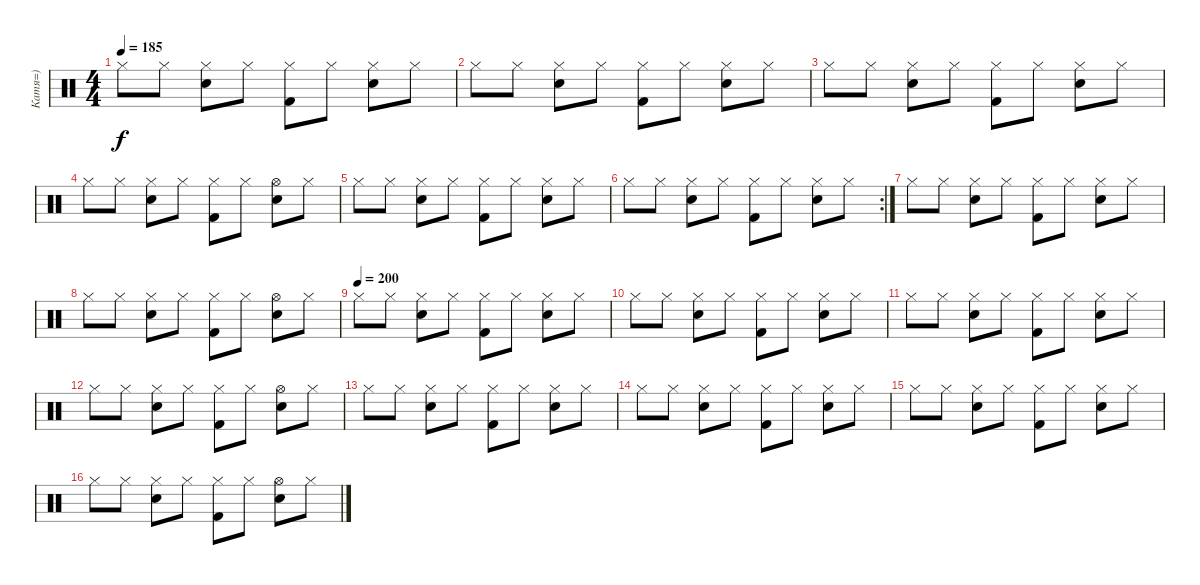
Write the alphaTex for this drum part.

\track ("Катя=)" "Катя=)") {instrument percussion}
\staff {score}
\articulation defaults
\ts (4 4)
\tempo 185
\clef neutral
\ks c "Hi-Hat (closed)".8{dy f} "Hi-Hat (closed)".8
("Hi-Hat (closed)" "Electric Snare (hit)").8 "Hi-Hat (closed)".8 ("Hi-Hat (closed)" "Kick (hit) 2").8 "Hi-Hat (closed)".8 ("Hi-Hat (closed)" "Electric Snare (hit)").8 "Hi-Hat (closed)".8 |
"Hi-Hat (closed)".8 "Hi-Hat (closed)".8 ("Hi-Hat (closed)" "Electric Snare (hit)").8 "Hi-Hat (closed)".8 ("Hi-Hat (closed)" "Kick (hit) 2").8 "Hi-Hat (closed)".8 ("Hi-Hat (closed)" "Electric Snare (hit)").8 "Hi-Hat (closed)".8 |
"Hi-Hat (closed)".8 "Hi-Hat (closed)".8 ("Hi-Hat (closed)" "Electric Snare (hit)").8 "Hi-Hat (closed)".8 ("Hi-Hat (closed)" "Kick (hit) 2").8 "Hi-Hat (closed)".8 ("Hi-Hat (closed)" "Electric Snare (hit)").8 "Hi-Hat (closed)".8 |
"Hi-Hat (closed)".8 "Hi-Hat (closed)".8 ("Hi-Hat (closed)" "Electric Snare (hit)").8 "Hi-Hat (closed)".8 ("Hi-Hat (closed)" "Kick (hit) 2").8 "Hi-Hat (closed)".8 ("Hi-Hat (open)" "Electric Snare (hit)").8 "Hi-Hat (closed)".8 |
"Hi-Hat (closed)".8 "Hi-Hat (closed)".8 ("Hi-Hat (closed)" "Electric Snare (hit)").8 "Hi-Hat (closed)".8 ("Hi-Hat (closed)" "Kick (hit) 2").8 "Hi-Hat (closed)".8 ("Hi-Hat (closed)" "Electric Snare (hit)").8 "Hi-Hat (closed)".8 |
\rc 2 "Hi-Hat (closed)".8 "Hi-Hat (closed)".8
("Hi-Hat (closed)" "Electric Snare (hit)").8 "Hi-Hat (closed)".8 ("Hi-Hat (closed)" "Kick (hit) 2").8 "Hi-Hat (closed)".8 ("Hi-Hat (closed)" "Electric Snare (hit)").8 "Hi-Hat (closed)".8 |
"Hi-Hat (closed)".8 "Hi-Hat (closed)".8 ("Hi-Hat (closed)" "Electric Snare (hit)").8 "Hi-Hat (closed)".8 ("Hi-Hat (closed)" "Kick (hit) 2").8 "Hi-Hat (closed)".8 ("Hi-Hat (closed)" "Electric Snare (hit)").8 "Hi-Hat (closed)".8 |
"Hi-Hat (closed)".8 "Hi-Hat (closed)".8 ("Hi-Hat (closed)" "Electric Snare (hit)").8 "Hi-Hat (closed)".8 ("Hi-Hat (closed)" "Kick (hit) 2").8 "Hi-Hat (closed)".8 ("Hi-Hat (open)" "Electric Snare (hit)").8 "Hi-Hat (closed)".8 |
\tempo (200)
"Hi-Hat (closed)".8 "Hi-Hat (closed)".8 ("Hi-Hat (closed)" "Electric Snare (hit)").8 "Hi-Hat (closed)".8 ("Hi-Hat (closed)" "Kick (hit) 2").8 "Hi-Hat (closed)".8 ("Hi-Hat (closed)" "Electric Snare (hit)").8 "Hi-Hat (closed)".8 |
"Hi-Hat (closed)".8 "Hi-Hat (closed)".8 ("Hi-Hat (closed)" "Electric Snare (hit)").8 "Hi-Hat (closed)".8 ("Hi-Hat (closed)" "Kick (hit) 2").8 "Hi-Hat (closed)".8 ("Hi-Hat (closed)" "Electric Snare (hit)").8 "Hi-Hat (closed)".8 |
"Hi-Hat (closed)".8 "Hi-Hat (closed)".8 ("Hi-Hat (closed)" "Electric Snare (hit)").8 "Hi-Hat (closed)".8 ("Hi-Hat (closed)" "Kick (hit) 2").8 "Hi-Hat (closed)".8 ("Hi-Hat (closed)" "Electric Snare (hit)").8 "Hi-Hat (closed)".8 |
"Hi-Hat (closed)".8 "Hi-Hat (closed)".8 ("Hi-Hat (closed)" "Electric Snare (hit)").8 "Hi-Hat (closed)".8 ("Hi-Hat (closed)" "Kick (hit) 2").8 "Hi-Hat (closed)".8 ("Hi-Hat (open)" "Electric Snare (hit)").8 "Hi-Hat (closed)".8 |
"Hi-Hat (closed)".8 "Hi-Hat (closed)".8 ("Hi-Hat (closed)" "Electric Snare (hit)").8 "Hi-Hat (closed)".8 ("Hi-Hat (closed)" "Kick (hit) 2").8 "Hi-Hat (closed)".8 ("Hi-Hat (closed)" "Electric Snare (hit)").8 "Hi-Hat (closed)".8 |
"Hi-Hat (closed)".8 "Hi-Hat (closed)".8 ("Hi-Hat (closed)" "Electric Snare (hit)").8 "Hi-Hat (closed)".8 ("Hi-Hat (closed)" "Kick (hit) 2").8 "Hi-Hat (closed)".8 ("Hi-Hat (closed)" "Electric Snare (hit)").8 "Hi-Hat (closed)".8 |
"Hi-Hat (closed)".8 "Hi-Hat (closed)".8 ("Hi-Hat (closed)" "Electric Snare (hit)").8 "Hi-Hat (closed)".8 ("Hi-Hat (closed)" "Kick (hit) 2").8 "Hi-Hat (closed)".8 ("Hi-Hat (closed)" "Electric Snare (hit)").8 "Hi-Hat (closed)".8 |
"Hi-Hat (closed)".8 "Hi-Hat (closed)".8 ("Hi-Hat (closed)" "Electric Snare (hit)").8 "Hi-Hat (closed)".8 ("Hi-Hat (closed)" "Kick (hit) 2").8 "Hi-Hat (closed)".8 ("Hi-Hat (open)" "Electric Snare (hit)").8 "Hi-Hat (closed)".8
